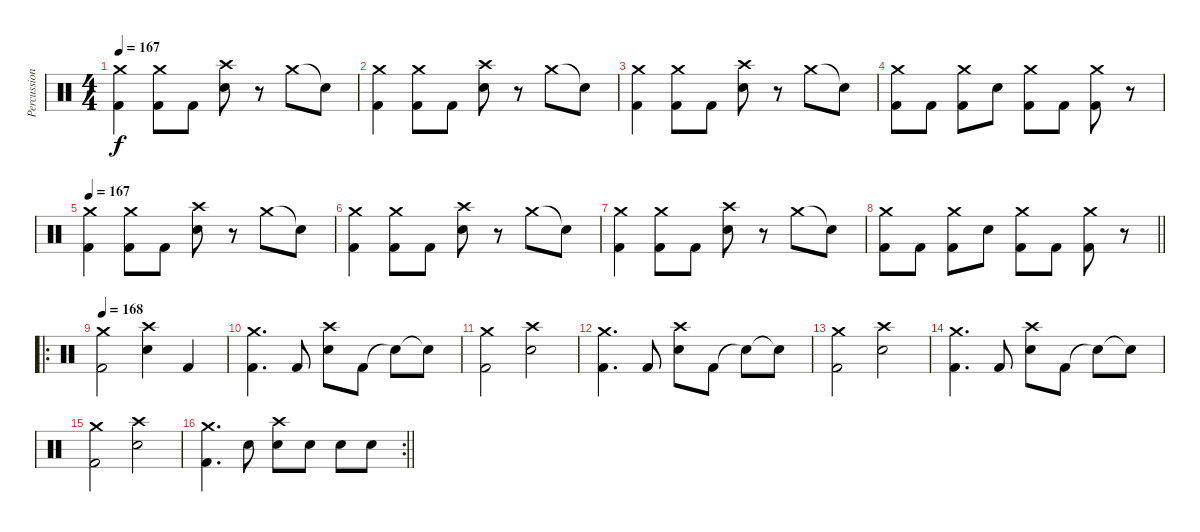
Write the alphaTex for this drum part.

\track ("Percussion" "Percussion") {instrument percussion}
\staff {score}
\articulation defaults
\ts (4 4)
\section ("" "")
\tempo 167
\clef neutral
\ks c
("Crash medium (hit)" "Kick (hit) 2").4{dy f} ("Crash medium (hit)" "Kick (hit) 2").8 "Kick (hit) 2".8 ("Crash high (hit)" "Electric Snare (hit)").8 r.8 "Crash medium (hit)".8 "Snare (hit)"{t}.8 |
("Crash medium (hit)" "Kick (hit) 2").4 ("Crash medium (hit)" "Kick (hit) 2").8 "Kick (hit) 2".8 ("Crash high (hit)" "Electric Snare (hit)").8 r.8 "Crash medium (hit)".8 "Snare (hit)"{t}.8 |
("Crash medium (hit)" "Kick (hit) 2").4 ("Crash medium (hit)" "Kick (hit) 2").8 "Kick (hit) 2".8 ("Crash high (hit)" "Electric Snare (hit)").8 r.8 "Crash medium (hit)".8 "Snare (hit)"{t}.8 |
("Crash medium (hit)" "Kick (hit) 2").8 "Kick (hit) 2".8 ("Crash medium (hit)" "Kick (hit) 2").8 "Electric Snare (hit)".8 ("Crash medium (hit)" "Kick (hit) 2").8 "Kick (hit) 2".8 ("Crash medium (hit)" "Kick (hit) 2").8 r.8 |
\tempo 167
("Crash medium (hit)" "Kick (hit) 2").4 ("Crash medium (hit)" "Kick (hit) 2").8 "Kick (hit) 2".8 ("Crash high (hit)" "Electric Snare (hit)").8 r.8 "Crash medium (hit)".8 "Snare (hit)"{t}.8 |
("Crash medium (hit)" "Kick (hit) 2").4 ("Crash medium (hit)" "Kick (hit) 2").8 "Kick (hit) 2".8 ("Crash high (hit)" "Electric Snare (hit)").8 r.8 "Crash medium (hit)".8 "Snare (hit)"{t}.8 |
("Crash medium (hit)" "Kick (hit) 2").4 ("Crash medium (hit)" "Kick (hit) 2").8 "Kick (hit) 2".8 ("Crash high (hit)" "Electric Snare (hit)").8 r.8 "Crash medium (hit)".8 "Snare (hit)"{t}.8 |
\barLineRight lightlight
("Crash medium (hit)" "Kick (hit) 2").8 "Kick (hit) 2".8 ("Crash medium (hit)" "Kick (hit) 2").8 "Electric Snare (hit)".8 ("Crash medium (hit)" "Kick (hit) 2").8 "Kick (hit) 2".8 ("Crash medium (hit)" "Kick (hit) 2").8 r.8 |
\ro
\section ("" "")
\tempo 168
("Crash medium (hit)" "Kick (hit) 2").2 ("Crash high (hit)" "Electric Snare (hit)").4 "Kick (hit) 2".4 |
("Crash medium (hit)" "Kick (hit) 2").4{d} "Kick (hit) 2".8 ("Crash high (hit)" "Electric Snare (hit)").8 "Kick (hit) 2".8 "Snare (hit)"{t}.8 "Snare (hit)"{t}.8 |
("Crash medium (hit)" "Kick (hit) 2").2 ("Crash high (hit)" "Electric Snare (hit)").2 |
("Crash medium (hit)" "Kick (hit) 2").4{d} "Kick (hit) 2".8 ("Crash high (hit)" "Electric Snare (hit)").8 "Kick (hit) 2".8 "Snare (hit)"{t}.8 "Snare (hit)"{t}.8 |
("Crash medium (hit)" "Kick (hit) 2").2 ("Crash high (hit)" "Electric Snare (hit)").2 |
("Crash medium (hit)" "Kick (hit) 2").4{d} "Kick (hit) 2".8 ("Crash high (hit)" "Electric Snare (hit)").8 "Kick (hit) 2".8 "Snare (hit)"{t}.8 "Snare (hit)"{t}.8 |
("Crash medium (hit)" "Kick (hit) 2").2 ("Crash high (hit)" "Electric Snare (hit)").2 |
\rc 2
\barLineRight lightlight
("Crash medium (hit)" "Kick (hit) 2").4{d} "Electric Snare (hit)".8 ("Crash high (hit)" "Electric Snare (hit)").8 "Electric Snare (hit)".8 "Electric Snare (hit)".8 "Electric Snare (hit)".8
